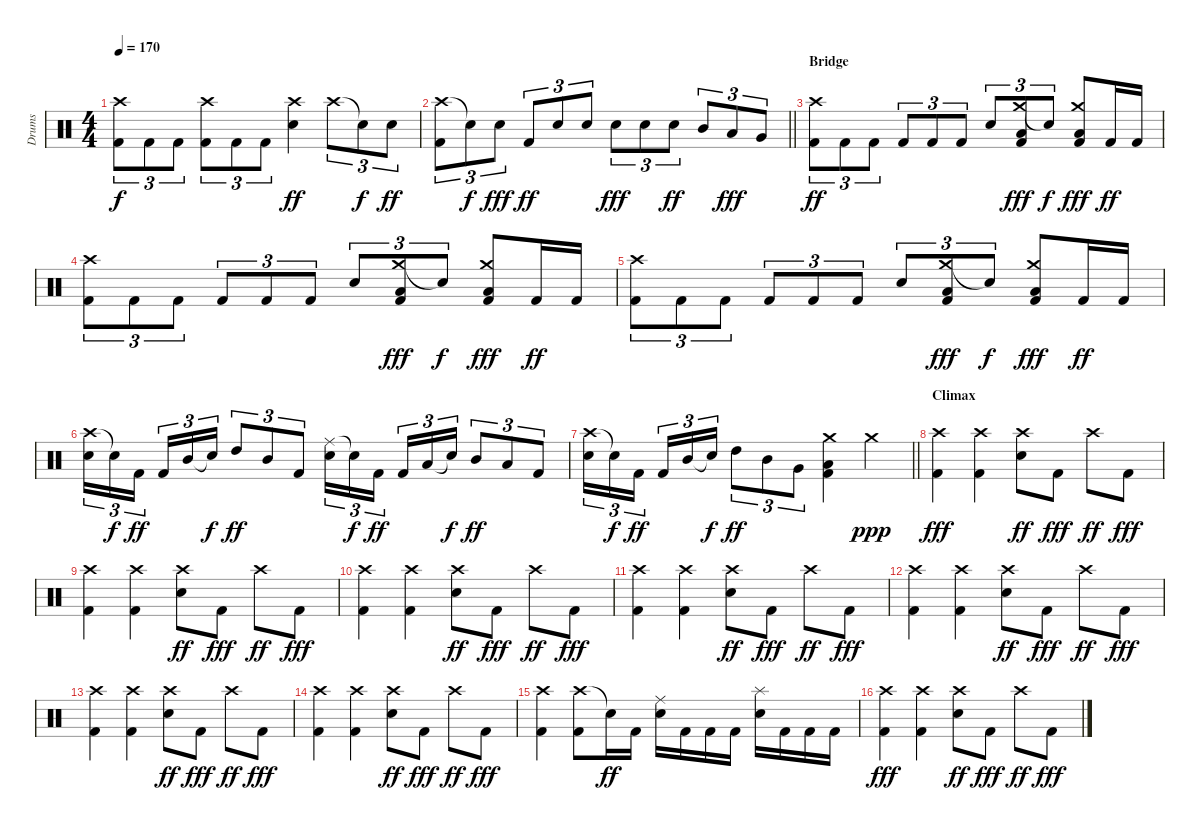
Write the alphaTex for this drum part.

\track ("Drums" "Drums") {instrument percussion}
\staff {score}
\articulation defaults
\ts (4 4)
\tempo 170
\clef neutral
\ks c
("Crash high (hit)" "Kick (hit) 2").8{tu (3 2) dy f} "Kick (hit) 2".8{tu (3 2)} "Kick (hit) 2".8{tu (3 2)} ("Crash high (hit)" "Kick (hit) 2").8{tu (3 2)} "Kick (hit) 2".8{tu (3 2)} "Kick (hit) 2".8{tu (3 2)} ("Crash high (hit)" "Snare (hit) 2").4{dy ff} "Crash high (hit)".8{tu (3 2)} "Snare (hit)"{t}.8{tu (3 2) dy f} "Snare (hit) 2".8{tu (3 2) dy ff} |
\barLineRight lightlight
("Crash high (hit)" "Kick (hit) 2").8{tu (3 2)} "Snare (hit)"{t}.8{tu (3 2) dy f} "Snare (hit) 2".8{tu (3 2) dy fff} "Kick (hit) 2".8{tu (3 2) dy ff} "Snare (hit) 2".8{tu (3 2)} "Snare (hit) 2".8{tu (3 2)} "Snare (hit) 2".8{tu (3 2) dy fff} "Snare (hit) 2".8{tu (3 2)} "Snare (hit) 2".8{tu (3 2) dy ff} "Mid Tom (hit)".8{tu (3 2)} "Low Tom (hit)".8{tu (3 2) dy fff} "Very Low Tom (hit)".8{tu (3 2)} |
\section ("" "Bridge")
("Crash high (hit)" "Kick (hit) 2").8{tu (3 2) dy ff} "Kick (hit) 2".8{tu (3 2)} "Kick (hit) 2".8{tu (3 2)} "Kick (hit) 2".8{tu (3 2)} "Kick (hit) 2".8{tu (3 2)} "Kick (hit) 2".8{tu (3 2)} "Snare (hit) 2".8{tu (3 2)} ("Crash medium (hit)" "Low Floor Tom (hit)" "Kick (hit) 2").8{tu (3 2) dy fff} "Snare (hit)"{t}.8{tu (3 2) dy f} ("Crash medium (hit)" "Low Floor Tom (hit)" "Kick (hit) 2").8{dy fff} "Kick (hit) 2".16{dy ff} "Kick (hit) 2".16 |
("Crash high (hit)" "Kick (hit) 2").8{tu (3 2)} "Kick (hit) 2".8{tu (3 2)} "Kick (hit) 2".8{tu (3 2)} "Kick (hit) 2".8{tu (3 2)} "Kick (hit) 2".8{tu (3 2)} "Kick (hit) 2".8{tu (3 2)} "Snare (hit) 2".8{tu (3 2)} ("Crash medium (hit)" "Low Floor Tom (hit)" "Kick (hit) 2").8{tu (3 2) dy fff} "Snare (hit)"{t}.8{tu (3 2) dy f} ("Crash medium (hit)" "Low Floor Tom (hit)" "Kick (hit) 2").8{dy fff} "Kick (hit) 2".16{dy ff} "Kick (hit) 2".16 |
("Crash high (hit)" "Kick (hit) 2").8{tu (3 2)} "Kick (hit) 2".8{tu (3 2)} "Kick (hit) 2".8{tu (3 2)} "Kick (hit) 2".8{tu (3 2)} "Kick (hit) 2".8{tu (3 2)} "Kick (hit) 2".8{tu (3 2)} "Snare (hit) 2".8{tu (3 2)} ("Crash medium (hit)" "Low Floor Tom (hit)" "Kick (hit) 2").8{tu (3 2) dy fff} "Snare (hit)"{t}.8{tu (3 2) dy f} ("Crash medium (hit)" "Low Floor Tom (hit)" "Kick (hit) 2").8{dy fff} "Kick (hit) 2".16{dy ff} "Kick (hit) 2".16 |
("Crash high (hit)" "Snare (hit) 2").16{tu (3 2)} "Snare (hit)"{t}.16{tu (3 2) dy f} "Kick (hit) 2".16{tu (3 2) dy ff beam splitsecondary} "Kick (hit) 2".16{tu (3 2)} "Mid Tom (hit)".16{tu (3 2)} "Snare (hit)"{t}.16{tu (3 2) dy f} "High Tom (hit)".8{tu (3 2) dy ff} "Mid Tom (hit)".8{tu (3 2)} "Kick (hit) 2".8{tu (3 2)} ("Ride (middle)" "Snare (hit) 2").16{tu (3 2)} "Snare (hit)"{t}.16{tu (3 2) dy f} "Kick (hit) 2".16{tu (3 2) dy ff beam splitsecondary} "Kick (hit) 2".16{tu (3 2)} "Low Tom (hit)".16{tu (3 2)} "Snare (hit)"{t}.16{tu (3 2) dy f} "Mid Tom (hit)".8{tu (3 2) dy ff} "Low Tom (hit)".8{tu (3 2)} "Kick (hit) 2".8{tu (3 2)} |
\barLineRight lightlight
("Crash high (hit)" "Snare (hit) 2").16{tu (3 2)} "Snare (hit)"{t}.16{tu (3 2) dy f} "Kick (hit) 2".16{tu (3 2) dy ff beam splitsecondary} "Kick (hit) 2".16{tu (3 2)} "Mid Tom (hit)".16{tu (3 2)} "Snare (hit)"{t}.16{tu (3 2) dy f} "High Tom (hit)".8{tu (3 2) dy ff} "Mid Tom (hit)".8{tu (3 2)} "Very Low Tom (hit)".8{tu (3 2)} ("Crash medium (hit)" "Low Tom (hit)" "Kick (hit) 2").4 "Crash medium (hit)".4{dy ppp} |
\section ("" "Climax")
("Crash high (hit)" "Kick (hit) 2").4{dy fff} ("Crash high (hit)" "Kick (hit) 2").4 ("Crash high (hit)" "Snare (hit) 2").8{dy ff} "Kick (hit) 2".8{dy fff} "Crash high (hit)".8{dy ff} "Kick (hit) 2".8{dy fff} |
("Crash high (hit)" "Kick (hit) 2").4 ("Crash high (hit)" "Kick (hit) 2").4 ("Crash high (hit)" "Snare (hit) 2").8{dy ff} "Kick (hit) 2".8{dy fff} "Crash high (hit)".8{dy ff} "Kick (hit) 2".8{dy fff} |
("Crash high (hit)" "Kick (hit) 2").4 ("Crash high (hit)" "Kick (hit) 2").4 ("Crash high (hit)" "Snare (hit) 2").8{dy ff} "Kick (hit) 2".8{dy fff} "Crash high (hit)".8{dy ff} "Kick (hit) 2".8{dy fff} |
("Crash high (hit)" "Kick (hit) 2").4 ("Crash high (hit)" "Kick (hit) 2").4 ("Crash high (hit)" "Snare (hit) 2").8{dy ff} "Kick (hit) 2".8{dy fff} "Crash high (hit)".8{dy ff} "Kick (hit) 2".8{dy fff} |
("Crash high (hit)" "Kick (hit) 2").4 ("Crash high (hit)" "Kick (hit) 2").4 ("Crash high (hit)" "Snare (hit) 2").8{dy ff} "Kick (hit) 2".8{dy fff} "Crash high (hit)".8{dy ff} "Kick (hit) 2".8{dy fff} |
("Crash high (hit)" "Kick (hit) 2").4 ("Crash high (hit)" "Kick (hit) 2").4 ("Crash high (hit)" "Snare (hit) 2").8{dy ff} "Kick (hit) 2".8{dy fff} "Crash high (hit)".8{dy ff} "Kick (hit) 2".8{dy fff} |
("Crash high (hit)" "Kick (hit) 2").4 ("Crash high (hit)" "Kick (hit) 2").4 ("Crash high (hit)" "Snare (hit) 2").8{dy ff} "Kick (hit) 2".8{dy fff} "Crash high (hit)".8{dy ff} "Kick (hit) 2".8{dy fff} |
("Crash high (hit)" "Kick (hit) 2").4 ("Crash high (hit)" "Kick (hit) 2").8 "Snare (hit)"{t}.16{dy ff} "Kick (hit) 2".16 ("Ride (middle)" "Snare (hit) 2").16 "Kick (hit) 2".16 "Kick (hit) 2".16 "Kick (hit) 2".16 ("Splash (hit)" "Snare (hit) 2").16 "Kick (hit) 2".16 "Kick (hit) 2".16 "Kick (hit) 2".16 |
("Crash high (hit)" "Kick (hit) 2").4{dy fff} ("Crash high (hit)" "Kick (hit) 2").4 ("Crash high (hit)" "Snare (hit) 2").8{dy ff} "Kick (hit) 2".8{dy fff} "Crash high (hit)".8{dy ff} "Kick (hit) 2".8{dy fff}
